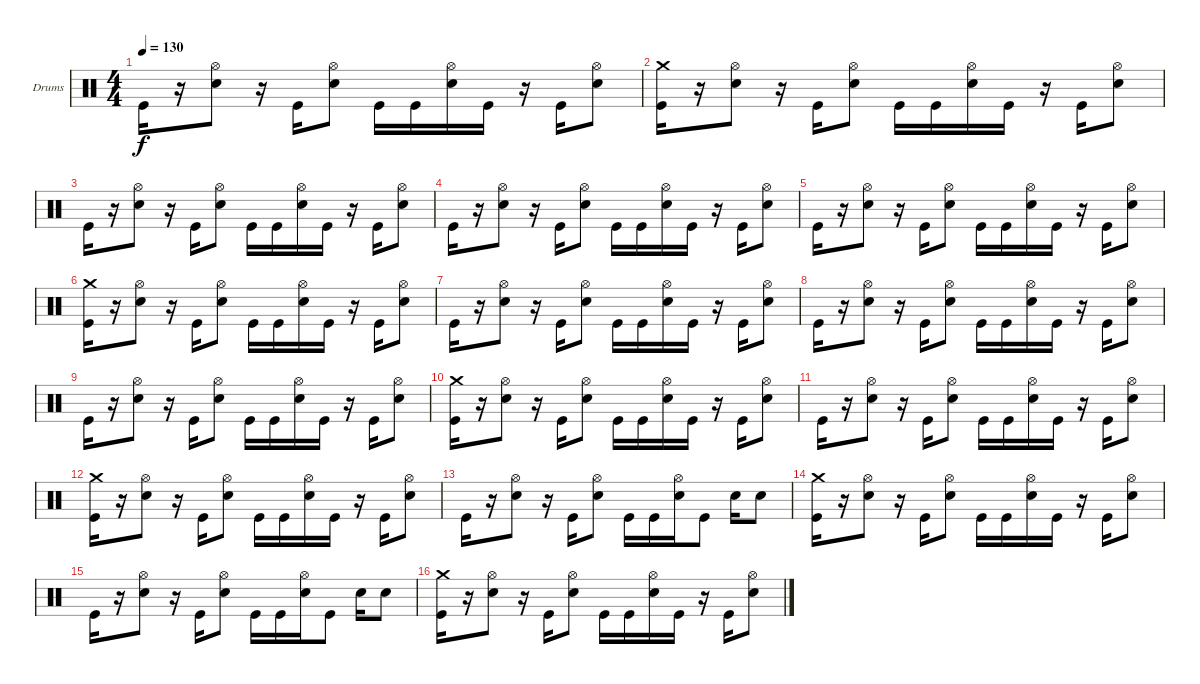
\bracketExtendMode groupsimilarinstruments
\firstSystemTrackNameOrientation horizontal
\otherSystemsTrackNameOrientation horizontal
\track ("Drumkit" "Drums") {instrument percussion}
\staff {score}
\articulation defaults
\ts (4 4)
\tempo 130
\clef neutral
\ks c "Kick (hit)".16{dy f}
r.16 ("Snare (hit) 2" "Hi-Hat (open)").8 r.16 "Kick (hit)".16 ("Snare (hit) 2" "Hi-Hat (open)").8 "Kick (hit)".16 "Kick (hit)".16 ("Snare (hit) 2" "Hi-Hat (open)").16 "Kick (hit)".16 r.16 "Kick (hit)".16 ("Snare (hit) 2" "Hi-Hat (open)").8 |
("Kick (hit)" "Crash medium (hit)").16 r.16 ("Snare (hit) 2" "Hi-Hat (open)").8 r.16 "Kick (hit)".16 ("Snare (hit) 2" "Hi-Hat (open)").8 "Kick (hit)".16 "Kick (hit)".16 ("Snare (hit) 2" "Hi-Hat (open)").16 "Kick (hit)".16 r.16 "Kick (hit)".16 ("Snare (hit) 2" "Hi-Hat (open)").8 |
"Kick (hit)".16 r.16 ("Snare (hit) 2" "Hi-Hat (open)").8 r.16 "Kick (hit)".16 ("Snare (hit) 2" "Hi-Hat (open)").8 "Kick (hit)".16 "Kick (hit)".16 ("Snare (hit) 2" "Hi-Hat (open)").16 "Kick (hit)".16 r.16 "Kick (hit)".16 ("Snare (hit) 2" "Hi-Hat (open)").8 |
"Kick (hit)".16 r.16 ("Snare (hit) 2" "Hi-Hat (open)").8 r.16 "Kick (hit)".16 ("Snare (hit) 2" "Hi-Hat (open)").8 "Kick (hit)".16 "Kick (hit)".16 ("Snare (hit) 2" "Hi-Hat (open)").16 "Kick (hit)".16 r.16 "Kick (hit)".16 ("Snare (hit) 2" "Hi-Hat (open)").8 |
"Kick (hit)".16 r.16 ("Snare (hit) 2" "Hi-Hat (open)").8 r.16 "Kick (hit)".16 ("Snare (hit) 2" "Hi-Hat (open)").8 "Kick (hit)".16 "Kick (hit)".16 ("Snare (hit) 2" "Hi-Hat (open)").16 "Kick (hit)".16 r.16 "Kick (hit)".16 ("Snare (hit) 2" "Hi-Hat (open)").8 |
("Kick (hit)" "Crash medium (hit)").16 r.16 ("Snare (hit) 2" "Hi-Hat (open)").8 r.16 "Kick (hit)".16 ("Snare (hit) 2" "Hi-Hat (open)").8 "Kick (hit)".16 "Kick (hit)".16 ("Snare (hit) 2" "Hi-Hat (open)").16 "Kick (hit)".16 r.16 "Kick (hit)".16 ("Snare (hit) 2" "Hi-Hat (open)").8 |
"Kick (hit)".16 r.16 ("Snare (hit) 2" "Hi-Hat (open)").8 r.16 "Kick (hit)".16 ("Snare (hit) 2" "Hi-Hat (open)").8 "Kick (hit)".16 "Kick (hit)".16 ("Snare (hit) 2" "Hi-Hat (open)").16 "Kick (hit)".16 r.16 "Kick (hit)".16 ("Snare (hit) 2" "Hi-Hat (open)").8 |
"Kick (hit)".16 r.16 ("Snare (hit) 2" "Hi-Hat (open)").8 r.16 "Kick (hit)".16 ("Snare (hit) 2" "Hi-Hat (open)").8 "Kick (hit)".16 "Kick (hit)".16 ("Snare (hit) 2" "Hi-Hat (open)").16 "Kick (hit)".16 r.16 "Kick (hit)".16 ("Snare (hit) 2" "Hi-Hat (open)").8 |
"Kick (hit)".16 r.16 ("Snare (hit) 2" "Hi-Hat (open)").8 r.16 "Kick (hit)".16 ("Snare (hit) 2" "Hi-Hat (open)").8 "Kick (hit)".16 "Kick (hit)".16 ("Snare (hit) 2" "Hi-Hat (open)").16 "Kick (hit)".16 r.16 "Kick (hit)".16 ("Snare (hit) 2" "Hi-Hat (open)").8 |
("Kick (hit)" "Crash medium (hit)").16 r.16 ("Snare (hit) 2" "Hi-Hat (open)").8 r.16 "Kick (hit)".16 ("Snare (hit) 2" "Hi-Hat (open)").8 "Kick (hit)".16 "Kick (hit)".16 ("Snare (hit) 2" "Hi-Hat (open)").16 "Kick (hit)".16 r.16 "Kick (hit)".16 ("Snare (hit) 2" "Hi-Hat (open)").8 |
"Kick (hit)".16 r.16 ("Snare (hit) 2" "Hi-Hat (open)").8 r.16 "Kick (hit)".16 ("Snare (hit) 2" "Hi-Hat (open)").8 "Kick (hit)".16 "Kick (hit)".16 ("Snare (hit) 2" "Hi-Hat (open)").16 "Kick (hit)".16 r.16 "Kick (hit)".16 ("Snare (hit) 2" "Hi-Hat (open)").8 |
("Kick (hit)" "Crash medium (hit)").16 r.16 ("Snare (hit) 2" "Hi-Hat (open)").8 r.16 "Kick (hit)".16 ("Snare (hit) 2" "Hi-Hat (open)").8 "Kick (hit)".16 "Kick (hit)".16 ("Snare (hit) 2" "Hi-Hat (open)").16 "Kick (hit)".16 r.16 "Kick (hit)".16 ("Snare (hit) 2" "Hi-Hat (open)").8 |
"Kick (hit)".16 r.16 ("Snare (hit) 2" "Hi-Hat (open)").8 r.16 "Kick (hit)".16 ("Snare (hit) 2" "Hi-Hat (open)").8 "Kick (hit)".16 "Kick (hit)".16 ("Snare (hit) 2" "Hi-Hat (open)").16 "Kick (hit)".8 "Snare (hit) 2".16 "Snare (hit) 2".8 |
("Kick (hit)" "Crash medium (hit)").16 r.16 ("Snare (hit) 2" "Hi-Hat (open)").8 r.16 "Kick (hit)".16 ("Snare (hit) 2" "Hi-Hat (open)").8 "Kick (hit)".16 "Kick (hit)".16 ("Snare (hit) 2" "Hi-Hat (open)").16 "Kick (hit)".16 r.16 "Kick (hit)".16 ("Snare (hit) 2" "Hi-Hat (open)").8 |
"Kick (hit)".16 r.16 ("Snare (hit) 2" "Hi-Hat (open)").8 r.16 "Kick (hit)".16 ("Snare (hit) 2" "Hi-Hat (open)").8 "Kick (hit)".16 "Kick (hit)".16 ("Snare (hit) 2" "Hi-Hat (open)").16 "Kick (hit)".8 "Snare (hit) 2".16 "Snare (hit) 2".8 |
("Kick (hit)" "Crash medium (hit)").16 r.16 ("Snare (hit) 2" "Hi-Hat (open)").8 r.16 "Kick (hit)".16 ("Snare (hit) 2" "Hi-Hat (open)").8 "Kick (hit)".16 "Kick (hit)".16 ("Snare (hit) 2" "Hi-Hat (open)").16 "Kick (hit)".16 r.16 "Kick (hit)".16 ("Snare (hit) 2" "Hi-Hat (open)").8
